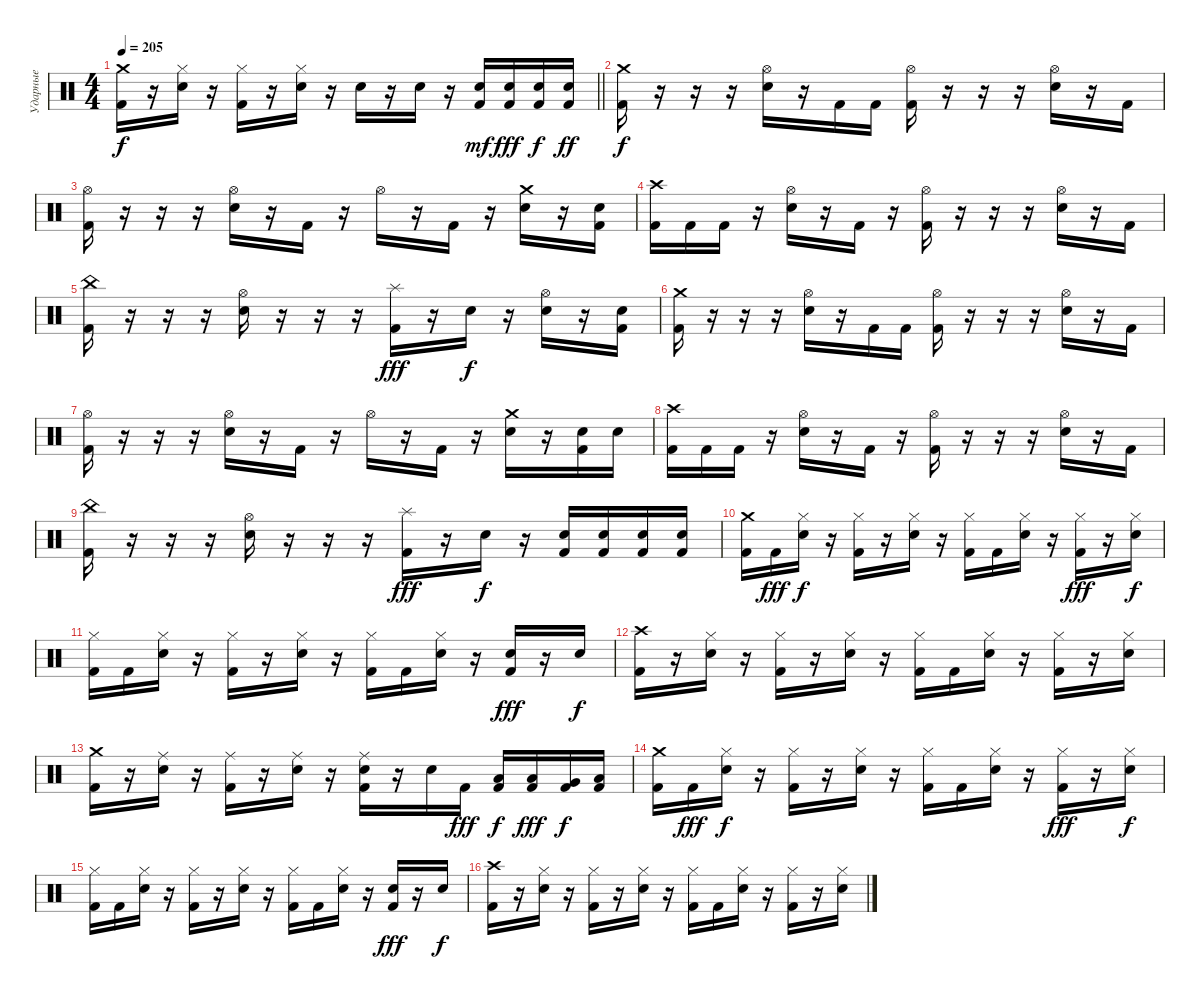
\track ("Ударные" "Ударные") {instrument percussion}
\staff {score}
\articulation defaults
\ts (4 4)
\tempo 205
\clef neutral
\barLineRight lightlight
\ks c
("Crash medium (hit)" "Kick (hit) 2").16{dy f} r.16 ("Hi-Hat (closed)" "Snare (hit) 2").16 r.16 ("Hi-Hat (closed)" "Kick (hit) 2").16 r.16 ("Hi-Hat (closed)" "Snare (hit) 2").16 r.16 "Snare (hit) 2".16 r.16 "Snare (hit) 2".16 r.16 ("Snare (hit) 2" "Kick (hit) 2").16{dy mf} ("Snare (hit) 2" "Kick (hit) 2").16{dy fff} ("Snare (hit) 2" "Kick (hit) 2").16{dy f} ("Snare (hit) 2" "Kick (hit) 2").16{dy ff} |
("Crash medium (hit)" "Kick (hit) 2").16{dy f} r.16 r.16 r.16 ("Hi-Hat (open)" "Snare (hit) 2").16 r.16 "Kick (hit) 2".16 "Kick (hit) 2".16 ("Hi-Hat (open)" "Kick (hit) 2").16 r.16 r.16 r.16 ("Hi-Hat (open)" "Snare (hit) 2").16 r.16 "Kick (hit) 2".16 |
("Hi-Hat (open)" "Kick (hit) 2").16 r.16 r.16 r.16 ("Hi-Hat (open)" "Snare (hit) 2").16 r.16 "Kick (hit) 2".16 r.16 "Hi-Hat (open)".16 r.16 "Kick (hit) 2".16 r.16 ("Crash medium (hit)" "Snare (hit) 2").16 r.16 ("Snare (hit) 2" "Kick (hit) 2").16 |
("Crash high (hit)" "Kick (hit) 2").16 "Kick (hit) 2".16 "Kick (hit) 2".16 r.16 ("Hi-Hat (open)" "Snare (hit) 2").16 r.16 "Kick (hit) 2".16 r.16 ("Hi-Hat (open)" "Kick (hit) 2").16 r.16 r.16 r.16 ("Hi-Hat (open)" "Snare (hit) 2").16 r.16 "Kick (hit) 2".16 |
("China (hit)" "Kick (hit) 2").16 r.16 r.16 r.16 ("Hi-Hat (open)" "Snare (hit) 2").16 r.16 r.16 r.16 ("Splash (hit)" "Kick (hit) 2").16{dy fff} r.16 "Snare (hit) 2".16{dy f} r.16 ("Hi-Hat (open)" "Snare (hit) 2").16 r.16 ("Snare (hit) 2" "Kick (hit) 2").16 |
("Crash medium (hit)" "Kick (hit) 2").16 r.16 r.16 r.16 ("Hi-Hat (open)" "Snare (hit) 2").16 r.16 "Kick (hit) 2".16 "Kick (hit) 2".16 ("Hi-Hat (open)" "Kick (hit) 2").16 r.16 r.16 r.16 ("Hi-Hat (open)" "Snare (hit) 2").16 r.16 "Kick (hit) 2".16 |
("Hi-Hat (open)" "Kick (hit) 2").16 r.16 r.16 r.16 ("Hi-Hat (open)" "Snare (hit) 2").16 r.16 "Kick (hit) 2".16 r.16 "Hi-Hat (open)".16 r.16 "Kick (hit) 2".16 r.16 ("Crash medium (hit)" "Snare (hit) 2").16 r.16 ("Snare (hit) 2" "Kick (hit) 2").16 "Snare (hit) 2".16 |
("Crash high (hit)" "Kick (hit) 2").16 "Kick (hit) 2".16 "Kick (hit) 2".16 r.16 ("Hi-Hat (open)" "Snare (hit) 2").16 r.16 "Kick (hit) 2".16 r.16 ("Hi-Hat (open)" "Kick (hit) 2").16 r.16 r.16 r.16 ("Hi-Hat (open)" "Snare (hit) 2").16 r.16 "Kick (hit) 2".16 |
("China (hit)" "Kick (hit) 2").16 r.16 r.16 r.16 ("Hi-Hat (open)" "Snare (hit) 2").16 r.16 r.16 r.16 ("Splash (hit)" "Kick (hit) 2").16{dy fff} r.16 "Snare (hit) 2".16{dy f} r.16 ("Snare (hit) 2" "Kick (hit) 2").16 ("Snare (hit) 2" "Kick (hit) 2").16 ("Snare (hit) 2" "Kick (hit) 2").16 ("Snare (hit) 2" "Kick (hit) 2").16 |
("Crash medium (hit)" "Kick (hit) 2").16 "Kick (hit) 2".16{dy fff} ("Hi-Hat (closed)" "Snare (hit) 2").16{dy f} r.16 ("Hi-Hat (closed)" "Kick (hit) 2").16 r.16 ("Hi-Hat (closed)" "Snare (hit) 2").16 r.16 ("Hi-Hat (closed)" "Kick (hit) 2").16 "Kick (hit) 2".16 ("Hi-Hat (closed)" "Snare (hit) 2").16 r.16 ("Hi-Hat (closed)" "Kick (hit) 2").16{dy fff} r.16 ("Hi-Hat (closed)" "Snare (hit) 2").16{dy f} |
("Hi-Hat (closed)" "Kick (hit) 2").16 "Kick (hit) 2".16 ("Hi-Hat (closed)" "Snare (hit) 2").16 r.16 ("Hi-Hat (closed)" "Kick (hit) 2").16 r.16 ("Hi-Hat (closed)" "Snare (hit) 2").16 r.16 ("Hi-Hat (closed)" "Kick (hit) 2").16 "Kick (hit) 2".16 ("Hi-Hat (closed)" "Snare (hit) 2").16 r.16 ("Snare (hit) 2" "Kick (hit) 2").16{dy fff} r.16 "Snare (hit) 2".16{dy f} |
("Crash high (hit)" "Kick (hit) 2").16 r.16 ("Hi-Hat (closed)" "Snare (hit) 2").16 r.16 ("Hi-Hat (closed)" "Kick (hit) 2").16 r.16 ("Hi-Hat (closed)" "Snare (hit) 2").16 r.16 ("Hi-Hat (closed)" "Kick (hit) 2").16 "Kick (hit) 2".16 ("Hi-Hat (closed)" "Snare (hit) 2").16 r.16 ("Hi-Hat (closed)" "Kick (hit) 2").16 r.16 ("Hi-Hat (closed)" "Snare (hit) 2").16 |
("Crash medium (hit)" "Kick (hit) 2").16 r.16 ("Ride (middle)" "Snare (hit) 2").16 r.16 ("Ride (middle)" "Kick (hit) 2").16 r.16 ("Ride (middle)" "Snare (hit) 2").16 r.16 ("Ride (middle)" "Snare (hit) 2" "Kick (hit) 2").16 r.16 "Snare (hit) 2".16 "Kick (hit) 2".16{dy fff} ("Low Tom (hit)" "Kick (hit) 2").16{dy f} ("Low Tom (hit)" "Kick (hit) 2").16{dy fff} ("Very Low Tom (hit)" "Kick (hit) 2").16{dy f} ("Low Floor Tom (hit)" "Kick (hit) 2").16 |
("Crash medium (hit)" "Kick (hit) 2").16 "Kick (hit) 2".16{dy fff} ("Hi-Hat (closed)" "Snare (hit) 2").16{dy f} r.16 ("Hi-Hat (closed)" "Kick (hit) 2").16 r.16 ("Hi-Hat (closed)" "Snare (hit) 2").16 r.16 ("Hi-Hat (closed)" "Kick (hit) 2").16 "Kick (hit) 2".16 ("Hi-Hat (closed)" "Snare (hit) 2").16 r.16 ("Hi-Hat (closed)" "Kick (hit) 2").16{dy fff} r.16 ("Hi-Hat (closed)" "Snare (hit) 2").16{dy f} |
("Hi-Hat (closed)" "Kick (hit) 2").16 "Kick (hit) 2".16 ("Hi-Hat (closed)" "Snare (hit) 2").16 r.16 ("Hi-Hat (closed)" "Kick (hit) 2").16 r.16 ("Hi-Hat (closed)" "Snare (hit) 2").16 r.16 ("Hi-Hat (closed)" "Kick (hit) 2").16 "Kick (hit) 2".16 ("Hi-Hat (closed)" "Snare (hit) 2").16 r.16 ("Snare (hit) 2" "Kick (hit) 2").16{dy fff} r.16 "Snare (hit) 2".16{dy f} |
("Crash high (hit)" "Kick (hit) 2").16 r.16 ("Hi-Hat (closed)" "Snare (hit) 2").16 r.16 ("Hi-Hat (closed)" "Kick (hit) 2").16 r.16 ("Hi-Hat (closed)" "Snare (hit) 2").16 r.16 ("Hi-Hat (closed)" "Kick (hit) 2").16 "Kick (hit) 2".16 ("Hi-Hat (closed)" "Snare (hit) 2").16 r.16 ("Hi-Hat (closed)" "Kick (hit) 2").16 r.16 ("Hi-Hat (closed)" "Snare (hit) 2").16
